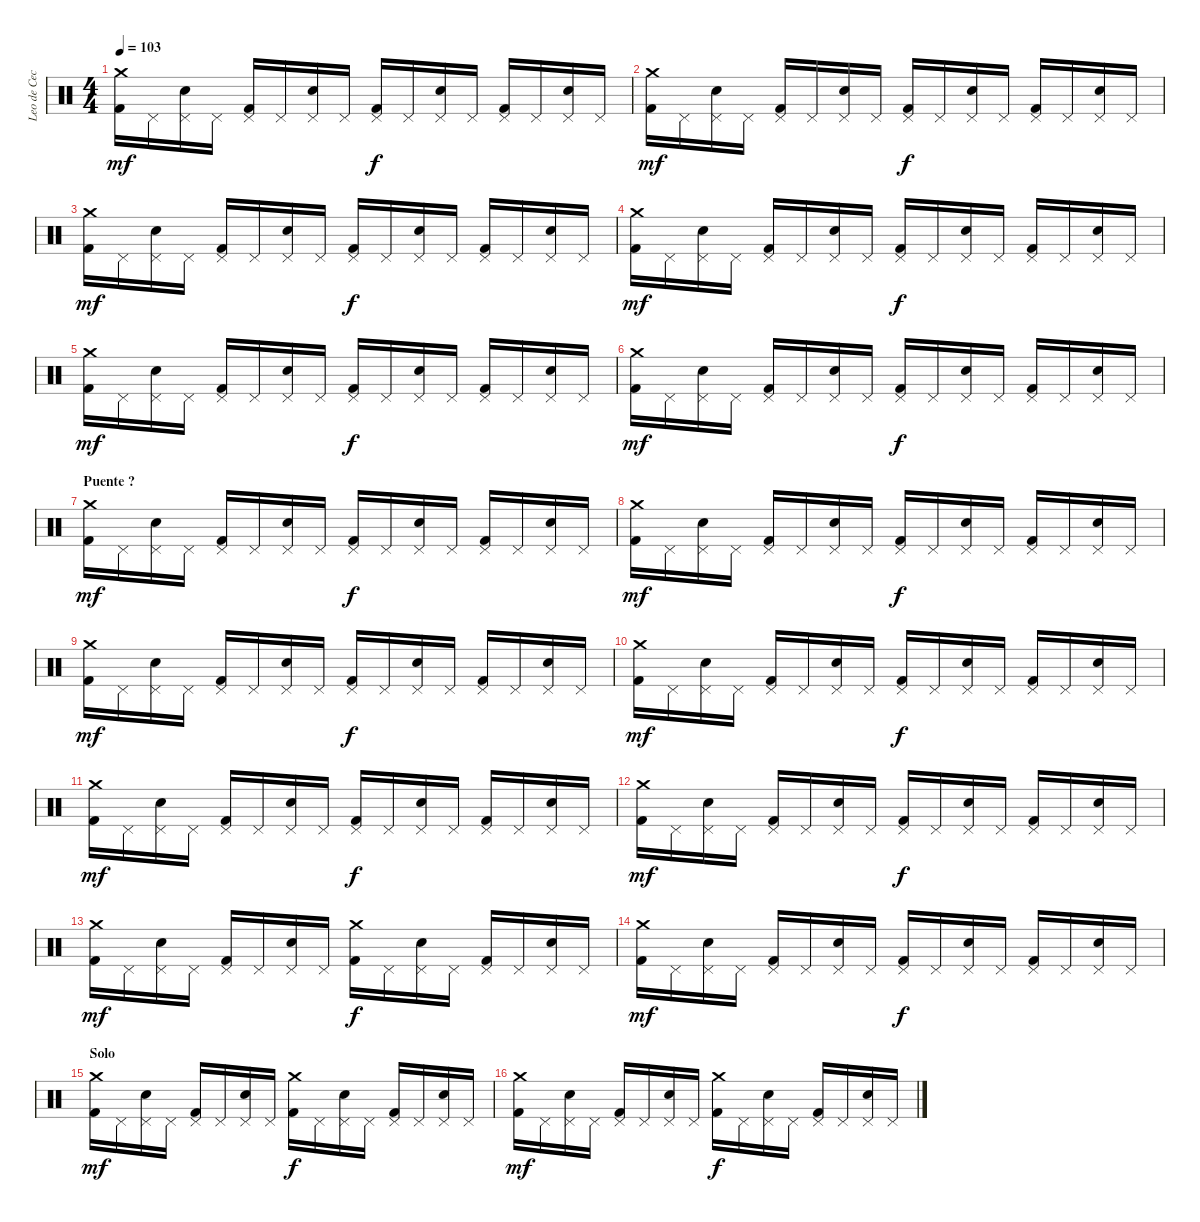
\track ("Leo de Cecco" "Leo de Cec") {instrument percussion}
\staff {score}
\articulation defaults
\ts (4 4)
\tempo 103
\clef neutral
\ks c
("Crash medium (hit)" "Kick (hit) 2").16{dy mf} "Pedal Hi-Hat (hit)".16 ("Pedal Hi-Hat (hit)" "Snare (hit) 2").16 "Pedal Hi-Hat (hit)".16 ("Pedal Hi-Hat (hit)" "Kick (hit) 2").16 "Pedal Hi-Hat (hit)".16 ("Pedal Hi-Hat (hit)" "Snare (hit) 2").16 "Pedal Hi-Hat (hit)".16 ("Pedal Hi-Hat (hit)" "Kick (hit) 2").16{dy f} "Pedal Hi-Hat (hit)".16 ("Pedal Hi-Hat (hit)" "Snare (hit) 2").16 "Pedal Hi-Hat (hit)".16 ("Pedal Hi-Hat (hit)" "Kick (hit) 2").16 "Pedal Hi-Hat (hit)".16 ("Pedal Hi-Hat (hit)" "Snare (hit) 2").16 "Pedal Hi-Hat (hit)".16 |
("Crash medium (hit)" "Kick (hit) 2").16{dy mf} "Pedal Hi-Hat (hit)".16 ("Pedal Hi-Hat (hit)" "Snare (hit) 2").16 "Pedal Hi-Hat (hit)".16 ("Pedal Hi-Hat (hit)" "Kick (hit) 2").16 "Pedal Hi-Hat (hit)".16 ("Pedal Hi-Hat (hit)" "Snare (hit) 2").16 "Pedal Hi-Hat (hit)".16 ("Pedal Hi-Hat (hit)" "Kick (hit) 2").16{dy f} "Pedal Hi-Hat (hit)".16 ("Pedal Hi-Hat (hit)" "Snare (hit) 2").16 "Pedal Hi-Hat (hit)".16 ("Pedal Hi-Hat (hit)" "Kick (hit) 2").16 "Pedal Hi-Hat (hit)".16 ("Pedal Hi-Hat (hit)" "Snare (hit) 2").16 "Pedal Hi-Hat (hit)".16 |
("Crash medium (hit)" "Kick (hit) 2").16{dy mf} "Pedal Hi-Hat (hit)".16 ("Pedal Hi-Hat (hit)" "Snare (hit) 2").16 "Pedal Hi-Hat (hit)".16 ("Pedal Hi-Hat (hit)" "Kick (hit) 2").16 "Pedal Hi-Hat (hit)".16 ("Pedal Hi-Hat (hit)" "Snare (hit) 2").16 "Pedal Hi-Hat (hit)".16 ("Pedal Hi-Hat (hit)" "Kick (hit) 2").16{dy f} "Pedal Hi-Hat (hit)".16 ("Pedal Hi-Hat (hit)" "Snare (hit) 2").16 "Pedal Hi-Hat (hit)".16 ("Pedal Hi-Hat (hit)" "Kick (hit) 2").16 "Pedal Hi-Hat (hit)".16 ("Pedal Hi-Hat (hit)" "Snare (hit) 2").16 "Pedal Hi-Hat (hit)".16 |
("Crash medium (hit)" "Kick (hit) 2").16{dy mf} "Pedal Hi-Hat (hit)".16 ("Pedal Hi-Hat (hit)" "Snare (hit) 2").16 "Pedal Hi-Hat (hit)".16 ("Pedal Hi-Hat (hit)" "Kick (hit) 2").16 "Pedal Hi-Hat (hit)".16 ("Pedal Hi-Hat (hit)" "Snare (hit) 2").16 "Pedal Hi-Hat (hit)".16 ("Pedal Hi-Hat (hit)" "Kick (hit) 2").16{dy f} "Pedal Hi-Hat (hit)".16 ("Pedal Hi-Hat (hit)" "Snare (hit) 2").16 "Pedal Hi-Hat (hit)".16 ("Pedal Hi-Hat (hit)" "Kick (hit) 2").16 "Pedal Hi-Hat (hit)".16 ("Pedal Hi-Hat (hit)" "Snare (hit) 2").16 "Pedal Hi-Hat (hit)".16 |
("Crash medium (hit)" "Kick (hit) 2").16{dy mf} "Pedal Hi-Hat (hit)".16 ("Pedal Hi-Hat (hit)" "Snare (hit) 2").16 "Pedal Hi-Hat (hit)".16 ("Pedal Hi-Hat (hit)" "Kick (hit) 2").16 "Pedal Hi-Hat (hit)".16 ("Pedal Hi-Hat (hit)" "Snare (hit) 2").16 "Pedal Hi-Hat (hit)".16 ("Pedal Hi-Hat (hit)" "Kick (hit) 2").16{dy f} "Pedal Hi-Hat (hit)".16 ("Pedal Hi-Hat (hit)" "Snare (hit) 2").16 "Pedal Hi-Hat (hit)".16 ("Pedal Hi-Hat (hit)" "Kick (hit) 2").16 "Pedal Hi-Hat (hit)".16 ("Pedal Hi-Hat (hit)" "Snare (hit) 2").16 "Pedal Hi-Hat (hit)".16 |
("Crash medium (hit)" "Kick (hit) 2").16{dy mf} "Pedal Hi-Hat (hit)".16 ("Pedal Hi-Hat (hit)" "Snare (hit) 2").16 "Pedal Hi-Hat (hit)".16 ("Pedal Hi-Hat (hit)" "Kick (hit) 2").16 "Pedal Hi-Hat (hit)".16 ("Pedal Hi-Hat (hit)" "Snare (hit) 2").16 "Pedal Hi-Hat (hit)".16 ("Pedal Hi-Hat (hit)" "Kick (hit) 2").16{dy f} "Pedal Hi-Hat (hit)".16 ("Pedal Hi-Hat (hit)" "Snare (hit) 2").16 "Pedal Hi-Hat (hit)".16 ("Pedal Hi-Hat (hit)" "Kick (hit) 2").16 "Pedal Hi-Hat (hit)".16 ("Pedal Hi-Hat (hit)" "Snare (hit) 2").16 "Pedal Hi-Hat (hit)".16 |
\section ("" "Puente ?")
("Crash medium (hit)" "Kick (hit) 2").16{dy mf} "Pedal Hi-Hat (hit)".16 ("Pedal Hi-Hat (hit)" "Snare (hit) 2").16 "Pedal Hi-Hat (hit)".16 ("Pedal Hi-Hat (hit)" "Kick (hit) 2").16 "Pedal Hi-Hat (hit)".16 ("Pedal Hi-Hat (hit)" "Snare (hit) 2").16 "Pedal Hi-Hat (hit)".16 ("Pedal Hi-Hat (hit)" "Kick (hit) 2").16{dy f} "Pedal Hi-Hat (hit)".16 ("Pedal Hi-Hat (hit)" "Snare (hit) 2").16 "Pedal Hi-Hat (hit)".16 ("Pedal Hi-Hat (hit)" "Kick (hit) 2").16 "Pedal Hi-Hat (hit)".16 ("Pedal Hi-Hat (hit)" "Snare (hit) 2").16 "Pedal Hi-Hat (hit)".16 |
("Crash medium (hit)" "Kick (hit) 2").16{dy mf} "Pedal Hi-Hat (hit)".16 ("Pedal Hi-Hat (hit)" "Snare (hit) 2").16 "Pedal Hi-Hat (hit)".16 ("Pedal Hi-Hat (hit)" "Kick (hit) 2").16 "Pedal Hi-Hat (hit)".16 ("Pedal Hi-Hat (hit)" "Snare (hit) 2").16 "Pedal Hi-Hat (hit)".16 ("Pedal Hi-Hat (hit)" "Kick (hit) 2").16{dy f} "Pedal Hi-Hat (hit)".16 ("Pedal Hi-Hat (hit)" "Snare (hit) 2").16 "Pedal Hi-Hat (hit)".16 ("Pedal Hi-Hat (hit)" "Kick (hit) 2").16 "Pedal Hi-Hat (hit)".16 ("Pedal Hi-Hat (hit)" "Snare (hit) 2").16 "Pedal Hi-Hat (hit)".16 |
("Crash medium (hit)" "Kick (hit) 2").16{dy mf} "Pedal Hi-Hat (hit)".16 ("Pedal Hi-Hat (hit)" "Snare (hit) 2").16 "Pedal Hi-Hat (hit)".16 ("Pedal Hi-Hat (hit)" "Kick (hit) 2").16 "Pedal Hi-Hat (hit)".16 ("Pedal Hi-Hat (hit)" "Snare (hit) 2").16 "Pedal Hi-Hat (hit)".16 ("Pedal Hi-Hat (hit)" "Kick (hit) 2").16{dy f} "Pedal Hi-Hat (hit)".16 ("Pedal Hi-Hat (hit)" "Snare (hit) 2").16 "Pedal Hi-Hat (hit)".16 ("Pedal Hi-Hat (hit)" "Kick (hit) 2").16 "Pedal Hi-Hat (hit)".16 ("Pedal Hi-Hat (hit)" "Snare (hit) 2").16 "Pedal Hi-Hat (hit)".16 |
("Crash medium (hit)" "Kick (hit) 2").16{dy mf} "Pedal Hi-Hat (hit)".16 ("Pedal Hi-Hat (hit)" "Snare (hit) 2").16 "Pedal Hi-Hat (hit)".16 ("Pedal Hi-Hat (hit)" "Kick (hit) 2").16 "Pedal Hi-Hat (hit)".16 ("Pedal Hi-Hat (hit)" "Snare (hit) 2").16 "Pedal Hi-Hat (hit)".16 ("Pedal Hi-Hat (hit)" "Kick (hit) 2").16{dy f} "Pedal Hi-Hat (hit)".16 ("Pedal Hi-Hat (hit)" "Snare (hit) 2").16 "Pedal Hi-Hat (hit)".16 ("Pedal Hi-Hat (hit)" "Kick (hit) 2").16 "Pedal Hi-Hat (hit)".16 ("Pedal Hi-Hat (hit)" "Snare (hit) 2").16 "Pedal Hi-Hat (hit)".16 |
("Crash medium (hit)" "Kick (hit) 2").16{dy mf} "Pedal Hi-Hat (hit)".16 ("Pedal Hi-Hat (hit)" "Snare (hit) 2").16 "Pedal Hi-Hat (hit)".16 ("Pedal Hi-Hat (hit)" "Kick (hit) 2").16 "Pedal Hi-Hat (hit)".16 ("Pedal Hi-Hat (hit)" "Snare (hit) 2").16 "Pedal Hi-Hat (hit)".16 ("Pedal Hi-Hat (hit)" "Kick (hit) 2").16{dy f} "Pedal Hi-Hat (hit)".16 ("Pedal Hi-Hat (hit)" "Snare (hit) 2").16 "Pedal Hi-Hat (hit)".16 ("Pedal Hi-Hat (hit)" "Kick (hit) 2").16 "Pedal Hi-Hat (hit)".16 ("Pedal Hi-Hat (hit)" "Snare (hit) 2").16 "Pedal Hi-Hat (hit)".16 |
("Crash medium (hit)" "Kick (hit) 2").16{dy mf} "Pedal Hi-Hat (hit)".16 ("Pedal Hi-Hat (hit)" "Snare (hit) 2").16 "Pedal Hi-Hat (hit)".16 ("Pedal Hi-Hat (hit)" "Kick (hit) 2").16 "Pedal Hi-Hat (hit)".16 ("Pedal Hi-Hat (hit)" "Snare (hit) 2").16 "Pedal Hi-Hat (hit)".16 ("Pedal Hi-Hat (hit)" "Kick (hit) 2").16{dy f} "Pedal Hi-Hat (hit)".16 ("Pedal Hi-Hat (hit)" "Snare (hit) 2").16 "Pedal Hi-Hat (hit)".16 ("Pedal Hi-Hat (hit)" "Kick (hit) 2").16 "Pedal Hi-Hat (hit)".16 ("Pedal Hi-Hat (hit)" "Snare (hit) 2").16 "Pedal Hi-Hat (hit)".16 |
("Crash medium (hit)" "Kick (hit) 2").16{dy mf} "Pedal Hi-Hat (hit)".16 ("Pedal Hi-Hat (hit)" "Snare (hit) 2").16 "Pedal Hi-Hat (hit)".16 ("Pedal Hi-Hat (hit)" "Kick (hit) 2").16 "Pedal Hi-Hat (hit)".16 ("Pedal Hi-Hat (hit)" "Snare (hit) 2").16 "Pedal Hi-Hat (hit)".16 ("Crash medium (hit)" "Kick (hit) 2").16{dy f} "Pedal Hi-Hat (hit)".16 ("Pedal Hi-Hat (hit)" "Snare (hit) 2").16 "Pedal Hi-Hat (hit)".16 ("Pedal Hi-Hat (hit)" "Kick (hit) 2").16 "Pedal Hi-Hat (hit)".16 ("Pedal Hi-Hat (hit)" "Snare (hit) 2").16 "Pedal Hi-Hat (hit)".16 |
("Crash medium (hit)" "Kick (hit) 2").16{dy mf} "Pedal Hi-Hat (hit)".16 ("Pedal Hi-Hat (hit)" "Snare (hit) 2").16 "Pedal Hi-Hat (hit)".16 ("Pedal Hi-Hat (hit)" "Kick (hit) 2").16 "Pedal Hi-Hat (hit)".16 ("Pedal Hi-Hat (hit)" "Snare (hit) 2").16 "Pedal Hi-Hat (hit)".16 ("Pedal Hi-Hat (hit)" "Kick (hit) 2").16{dy f} "Pedal Hi-Hat (hit)".16 ("Pedal Hi-Hat (hit)" "Snare (hit) 2").16 "Pedal Hi-Hat (hit)".16 ("Pedal Hi-Hat (hit)" "Kick (hit) 2").16 "Pedal Hi-Hat (hit)".16 ("Pedal Hi-Hat (hit)" "Snare (hit) 2").16 "Pedal Hi-Hat (hit)".16 |
\section ("" "Solo")
("Crash medium (hit)" "Kick (hit) 2").16{dy mf} "Pedal Hi-Hat (hit)".16 ("Pedal Hi-Hat (hit)" "Snare (hit) 2").16 "Pedal Hi-Hat (hit)".16 ("Pedal Hi-Hat (hit)" "Kick (hit) 2").16 "Pedal Hi-Hat (hit)".16 ("Pedal Hi-Hat (hit)" "Snare (hit) 2").16 "Pedal Hi-Hat (hit)".16 ("Crash medium (hit)" "Kick (hit) 2").16{dy f} "Pedal Hi-Hat (hit)".16 ("Pedal Hi-Hat (hit)" "Snare (hit) 2").16 "Pedal Hi-Hat (hit)".16 ("Pedal Hi-Hat (hit)" "Kick (hit) 2").16 "Pedal Hi-Hat (hit)".16 ("Pedal Hi-Hat (hit)" "Snare (hit) 2").16 "Pedal Hi-Hat (hit)".16 |
("Crash medium (hit)" "Kick (hit) 2").16{dy mf} "Pedal Hi-Hat (hit)".16 ("Pedal Hi-Hat (hit)" "Snare (hit) 2").16 "Pedal Hi-Hat (hit)".16 ("Pedal Hi-Hat (hit)" "Kick (hit) 2").16 "Pedal Hi-Hat (hit)".16 ("Pedal Hi-Hat (hit)" "Snare (hit) 2").16 "Pedal Hi-Hat (hit)".16 ("Crash medium (hit)" "Kick (hit) 2").16{dy f} "Pedal Hi-Hat (hit)".16 ("Pedal Hi-Hat (hit)" "Snare (hit) 2").16 "Pedal Hi-Hat (hit)".16 ("Pedal Hi-Hat (hit)" "Kick (hit) 2").16 "Pedal Hi-Hat (hit)".16 ("Pedal Hi-Hat (hit)" "Snare (hit) 2").16 "Pedal Hi-Hat (hit)".16
